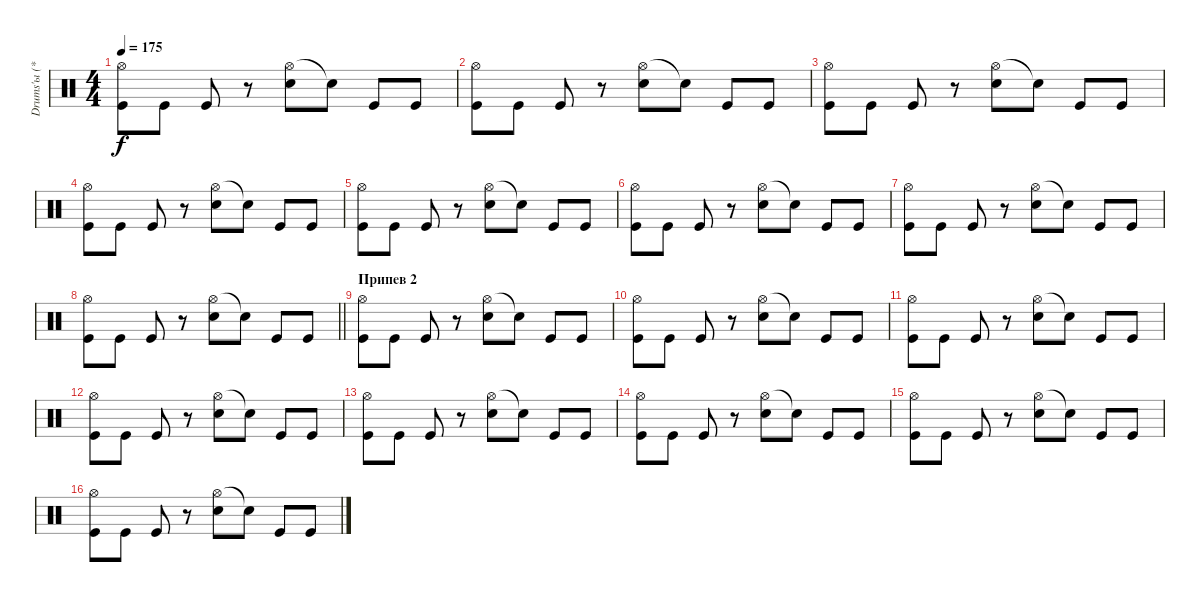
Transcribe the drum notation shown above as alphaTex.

\track ("Drums'ы (***)" "Drums'ы (*") {instrument percussion}
\staff {score}
\articulation defaults
\ts (4 4)
\tempo 175
\clef neutral
\ks c
("Hi-Hat (open)" "Kick (hit)").8{dy f} "Kick (hit)".8 "Kick (hit)".8 r.8 ("Hi-Hat (open)" "Electric Snare (hit)").8 "Snare (hit)"{t}.8 "Kick (hit)".8 "Kick (hit)".8 |
("Hi-Hat (open)" "Kick (hit)").8 "Kick (hit)".8 "Kick (hit)".8 r.8 ("Hi-Hat (open)" "Electric Snare (hit)").8 "Snare (hit)"{t}.8 "Kick (hit)".8 "Kick (hit)".8 |
("Hi-Hat (open)" "Kick (hit)").8 "Kick (hit)".8 "Kick (hit)".8 r.8 ("Hi-Hat (open)" "Electric Snare (hit)").8 "Snare (hit)"{t}.8 "Kick (hit)".8 "Kick (hit)".8 |
("Hi-Hat (open)" "Kick (hit)").8 "Kick (hit)".8 "Kick (hit)".8 r.8 ("Hi-Hat (open)" "Electric Snare (hit)").8 "Snare (hit)"{t}.8 "Kick (hit)".8 "Kick (hit)".8 |
("Hi-Hat (open)" "Kick (hit)").8 "Kick (hit)".8 "Kick (hit)".8 r.8 ("Hi-Hat (open)" "Electric Snare (hit)").8 "Snare (hit)"{t}.8 "Kick (hit)".8 "Kick (hit)".8 |
("Hi-Hat (open)" "Kick (hit)").8 "Kick (hit)".8 "Kick (hit)".8 r.8 ("Hi-Hat (open)" "Electric Snare (hit)").8 "Snare (hit)"{t}.8 "Kick (hit)".8 "Kick (hit)".8 |
("Hi-Hat (open)" "Kick (hit)").8 "Kick (hit)".8 "Kick (hit)".8 r.8 ("Hi-Hat (open)" "Electric Snare (hit)").8 "Snare (hit)"{t}.8 "Kick (hit)".8 "Kick (hit)".8 |
\barLineRight lightlight
("Hi-Hat (open)" "Kick (hit)").8 "Kick (hit)".8 "Kick (hit)".8 r.8 ("Hi-Hat (open)" "Electric Snare (hit)").8 "Snare (hit)"{t}.8 "Kick (hit)".8 "Kick (hit)".8 |
\section ("" "Припев 2")
("Hi-Hat (open)" "Kick (hit)").8 "Kick (hit)".8 "Kick (hit)".8 r.8 ("Hi-Hat (open)" "Electric Snare (hit)").8 "Snare (hit)"{t}.8 "Kick (hit)".8 "Kick (hit)".8 |
("Hi-Hat (open)" "Kick (hit)").8 "Kick (hit)".8 "Kick (hit)".8 r.8 ("Hi-Hat (open)" "Electric Snare (hit)").8 "Snare (hit)"{t}.8 "Kick (hit)".8 "Kick (hit)".8 |
("Hi-Hat (open)" "Kick (hit)").8 "Kick (hit)".8 "Kick (hit)".8 r.8 ("Hi-Hat (open)" "Electric Snare (hit)").8 "Snare (hit)"{t}.8 "Kick (hit)".8 "Kick (hit)".8 |
("Hi-Hat (open)" "Kick (hit)").8 "Kick (hit)".8 "Kick (hit)".8 r.8 ("Hi-Hat (open)" "Electric Snare (hit)").8 "Snare (hit)"{t}.8 "Kick (hit)".8 "Kick (hit)".8 |
("Hi-Hat (open)" "Kick (hit)").8 "Kick (hit)".8 "Kick (hit)".8 r.8 ("Hi-Hat (open)" "Electric Snare (hit)").8 "Snare (hit)"{t}.8 "Kick (hit)".8 "Kick (hit)".8 |
("Hi-Hat (open)" "Kick (hit)").8 "Kick (hit)".8 "Kick (hit)".8 r.8 ("Hi-Hat (open)" "Electric Snare (hit)").8 "Snare (hit)"{t}.8 "Kick (hit)".8 "Kick (hit)".8 |
("Hi-Hat (open)" "Kick (hit)").8 "Kick (hit)".8 "Kick (hit)".8 r.8 ("Hi-Hat (open)" "Electric Snare (hit)").8 "Snare (hit)"{t}.8 "Kick (hit)".8 "Kick (hit)".8 |
("Hi-Hat (open)" "Kick (hit)").8 "Kick (hit)".8 "Kick (hit)".8 r.8 ("Hi-Hat (open)" "Electric Snare (hit)").8 "Snare (hit)"{t}.8 "Kick (hit)".8 "Kick (hit)".8
